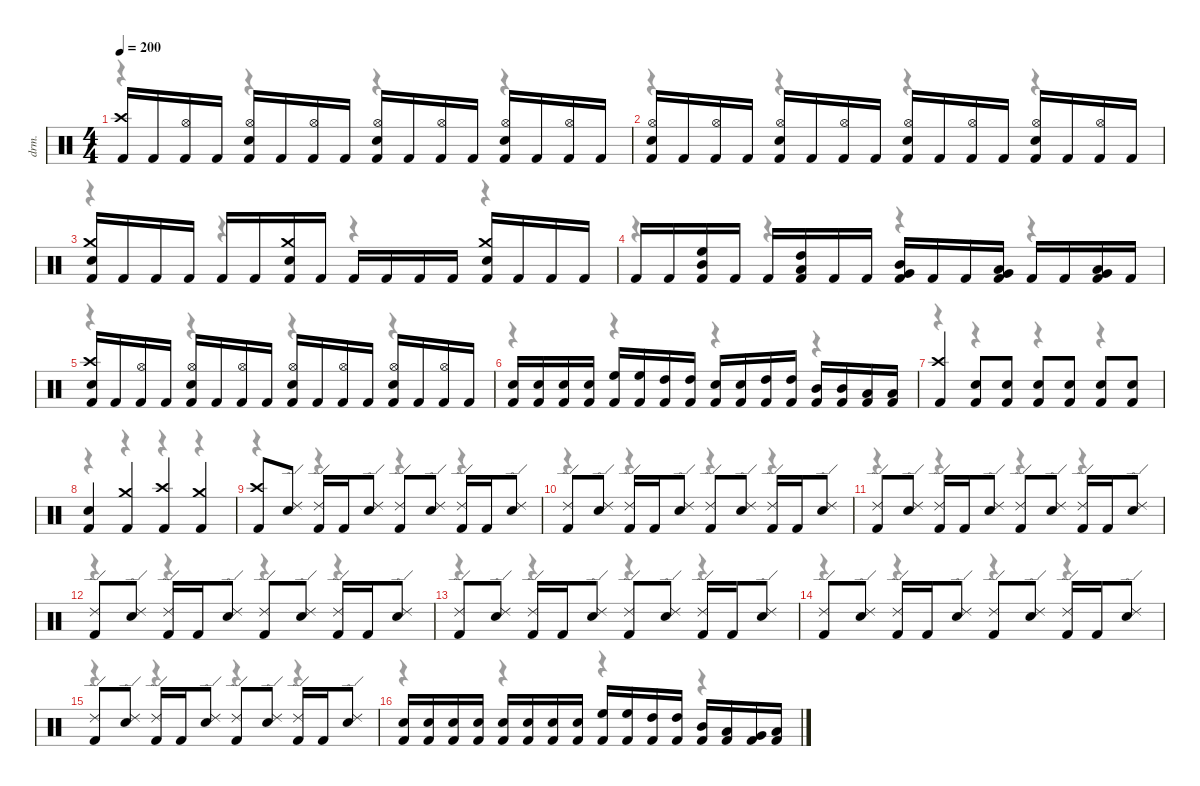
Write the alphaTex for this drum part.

\hideDynamics
\bracketExtendMode nobrackets
\otherSystemsTrackNameOrientation horizontal
\track ("Drums" "drm.") {instrument percussion}
\staff {score}
\articulation defaults
\voice
\ts (4 4)
\section ("" "")
\scale
0.975825
\tempo 200
\accidentals auto
\clef neutral
\ottava regular
\simile none
\ks c
("Kick (hit) 2" "Crash high (hit)").16{dy f} "Kick (hit) 2".16 ("Kick (hit) 2" "Hi-Hat (open)").16 "Kick (hit) 2".16 ("Kick (hit) 2" "Snare (hit) 2" "Hi-Hat (open)").16 "Kick (hit) 2".16 ("Kick (hit) 2" "Hi-Hat (open)").16 "Kick (hit) 2".16 ("Kick (hit) 2" "Snare (hit) 2" "Hi-Hat (open)").16 "Kick (hit) 2".16 ("Kick (hit) 2" "Hi-Hat (open)").16 "Kick (hit) 2".16 ("Kick (hit) 2" "Snare (hit) 2" "Hi-Hat (open)").16 "Kick (hit) 2".16 ("Kick (hit) 2" "Hi-Hat (open)").16 "Kick (hit) 2".16 |
\scale
0.975825 ("Kick (hit) 2" "Snare (hit) 2" "Hi-Hat (open)").16 "Kick (hit) 2".16 ("Kick (hit) 2" "Hi-Hat (open)").16 "Kick (hit) 2".16 ("Kick (hit) 2" "Snare (hit) 2" "Hi-Hat (open)").16 "Kick (hit) 2".16 ("Kick (hit) 2" "Hi-Hat (open)").16 "Kick (hit) 2".16 ("Kick (hit) 2" "Snare (hit) 2" "Hi-Hat (open)").16 "Kick (hit) 2".16 ("Kick (hit) 2" "Hi-Hat (open)").16 "Kick (hit) 2".16 ("Kick (hit) 2" "Snare (hit) 2" "Hi-Hat (open)").16 "Kick (hit) 2".16 ("Kick (hit) 2" "Hi-Hat (open)").16 "Kick (hit) 2".16 |
\scale
1.084 ("Kick (hit) 2" "Snare (hit) 2" "Crash medium (hit)").16 "Kick (hit) 2".16 "Kick (hit) 2".16 "Kick (hit) 2".16 "Kick (hit) 2".16 "Kick (hit) 2".16 ("Kick (hit) 2" "Snare (hit) 2" "Crash medium (hit)").16 "Kick (hit) 2".16 "Kick (hit) 2".16 "Kick (hit) 2".16 "Kick (hit) 2".16 "Kick (hit) 2".16 ("Kick (hit) 2" "Snare (hit) 2" "Crash medium (hit)").16 "Kick (hit) 2".16 "Kick (hit) 2".16 "Kick (hit) 2".16 |
\scale
0.980728 "Kick (hit) 2".16 "Kick (hit) 2".16 ("Kick (hit) 2" "High Floor Tom (hit)" "Mid Tom (hit)").16 "Kick (hit) 2".16 "Kick (hit) 2".16 ("Kick (hit) 2" "High Tom (hit)" "Low Tom (hit)").16 "Kick (hit) 2".16 "Kick (hit) 2".16 ("Kick (hit) 2" "Mid Tom (hit)" "Very Low Tom (hit)").16 "Kick (hit) 2".16 "Kick (hit) 2".16 ("Kick (hit) 2" "Low Tom (hit)" "Very Low Tom (hit)").16 "Kick (hit) 2".16 "Kick (hit) 2".16 ("Kick (hit) 2" "Very Low Tom (hit)" "Low Floor Tom (hit)").16 "Kick (hit) 2".16 |
\scale
0.980728 ("Kick (hit) 2" "Snare (hit) 2" "Crash high (hit)").16 "Kick (hit) 2".16 ("Kick (hit) 2" "Hi-Hat (open)").16 "Kick (hit) 2".16 ("Kick (hit) 2" "Snare (hit) 2" "Hi-Hat (open)").16 "Kick (hit) 2".16 ("Kick (hit) 2" "Hi-Hat (open)").16 "Kick (hit) 2".16 ("Kick (hit) 2" "Snare (hit) 2" "Hi-Hat (open)").16 "Kick (hit) 2".16 ("Kick (hit) 2" "Hi-Hat (open)").16 "Kick (hit) 2".16 ("Kick (hit) 2" "Snare (hit) 2" "Hi-Hat (open)").16 "Kick (hit) 2".16 ("Kick (hit) 2" "Hi-Hat (open)").16 "Kick (hit) 2".16 |
\scale
0.980728 ("Kick (hit) 2" "Snare (hit) 2").16 ("Kick (hit) 2" "Snare (hit) 2").16 ("Kick (hit) 2" "Snare (hit) 2").16 ("Kick (hit) 2" "Snare (hit) 2").16 ("Kick (hit) 2" "High Floor Tom (hit)").16 ("Kick (hit) 2" "High Floor Tom (hit)").16 ("Kick (hit) 2" "High Tom (hit)").16 ("Kick (hit) 2" "High Tom (hit)").16 ("Kick (hit) 2" "Snare (hit) 2").16 ("Kick (hit) 2" "Snare (hit) 2").16 ("Kick (hit) 2" "High Tom (hit)").16 ("Kick (hit) 2" "High Tom (hit)").16 ("Kick (hit) 2" "Mid Tom (hit)").16 ("Kick (hit) 2" "Mid Tom (hit)").16 ("Kick (hit) 2" "Low Tom (hit)").16 ("Kick (hit) 2" "Low Tom (hit)").16 |
\scale
0.980728 ("Kick (hit) 2" "Crash high (hit)").4 ("Kick (hit) 2" "Snare (hit) 2").8 ("Kick (hit) 2" "Snare (hit) 2").8 ("Kick (hit) 2" "Snare (hit) 2").8 ("Kick (hit) 2" "Snare (hit) 2").8 ("Kick (hit) 2" "Snare (hit) 2").8 ("Kick (hit) 2" "Snare (hit) 2").8 |
\scale
0.993086 ("Kick (hit) 2" "Snare (hit) 2").4 ("Kick (hit) 2" "Crash medium (hit)").4 ("Kick (hit) 2" "Crash high (hit)").4 ("Kick (hit) 2" "Crash medium (hit)").4 |
\section ("" "")
\scale
1.08361 ("Kick (hit) 2" "Crash high (hit)").8 ("Snare (hit) 2" "Ride (edge) 2").8 ("Kick (hit) 2" "Ride (edge) 2").16 "Kick (hit) 2".16 ("Snare (hit) 2" "Ride (edge) 2").8 ("Kick (hit) 2" "Ride (edge) 2").8 ("Snare (hit) 2" "Ride (edge) 2").8 ("Kick (hit) 2" "Ride (edge) 2").16 "Kick (hit) 2".16 ("Snare (hit) 2" "Ride (edge) 2").8 |
\scale
0.980336 ("Kick (hit) 2" "Ride (edge) 2").8 ("Snare (hit) 2" "Ride (edge) 2").8 ("Kick (hit) 2" "Ride (edge) 2").16 "Kick (hit) 2".16 ("Snare (hit) 2" "Ride (edge) 2").8 ("Kick (hit) 2" "Ride (edge) 2").8 ("Snare (hit) 2" "Ride (edge) 2").8 ("Kick (hit) 2" "Ride (edge) 2").16 "Kick (hit) 2".16 ("Snare (hit) 2" "Ride (edge) 2").8 |
\scale
0.980336 ("Kick (hit) 2" "Ride (edge) 2").8 ("Snare (hit) 2" "Ride (edge) 2").8 ("Kick (hit) 2" "Ride (edge) 2").16 "Kick (hit) 2".16 ("Snare (hit) 2" "Ride (edge) 2").8 ("Kick (hit) 2" "Ride (edge) 2").8 ("Snare (hit) 2" "Ride (edge) 2").8 ("Kick (hit) 2" "Ride (edge) 2").16 "Kick (hit) 2".16 ("Snare (hit) 2" "Ride (edge) 2").8 |
\scale
0.980336 ("Kick (hit) 2" "Ride (edge) 2").8 ("Snare (hit) 2" "Ride (edge) 2").8 ("Kick (hit) 2" "Ride (edge) 2").16 "Kick (hit) 2".16 ("Snare (hit) 2" "Ride (edge) 2").8 ("Kick (hit) 2" "Ride (edge) 2").8 ("Snare (hit) 2" "Ride (edge) 2").8 ("Kick (hit) 2" "Ride (edge) 2").16 "Kick (hit) 2".16 ("Snare (hit) 2" "Ride (edge) 2").8 |
\scale
0.995047 ("Kick (hit) 2" "Ride (edge) 2").8 ("Snare (hit) 2" "Ride (edge) 2").8 ("Kick (hit) 2" "Ride (edge) 2").16 "Kick (hit) 2".16 ("Snare (hit) 2" "Ride (edge) 2").8 ("Kick (hit) 2" "Ride (edge) 2").8 ("Snare (hit) 2" "Ride (edge) 2").8 ("Kick (hit) 2" "Ride (edge) 2").16 "Kick (hit) 2".16 ("Snare (hit) 2" "Ride (edge) 2").8 |
\scale
0.980336 ("Kick (hit) 2" "Ride (edge) 2").8 ("Snare (hit) 2" "Ride (edge) 2").8 ("Kick (hit) 2" "Ride (edge) 2").16 "Kick (hit) 2".16 ("Snare (hit) 2" "Ride (edge) 2").8 ("Kick (hit) 2" "Ride (edge) 2").8 ("Snare (hit) 2" "Ride (edge) 2").8 ("Kick (hit) 2" "Ride (edge) 2").16 "Kick (hit) 2".16 ("Snare (hit) 2" "Ride (edge) 2").8 |
\scale
1.08116 ("Kick (hit) 2" "Ride (edge) 2").8 ("Snare (hit) 2" "Ride (edge) 2").8 ("Kick (hit) 2" "Ride (edge) 2").16 "Kick (hit) 2".16 ("Snare (hit) 2" "Ride (edge) 2").8 ("Kick (hit) 2" "Ride (edge) 2").8 ("Snare (hit) 2" "Ride (edge) 2").8 ("Kick (hit) 2" "Ride (edge) 2").16 "Kick (hit) 2".16 ("Snare (hit) 2" "Ride (edge) 2").8 |
\scale
0.992595 ("Kick (hit) 2" "Snare (hit) 2").16 ("Kick (hit) 2" "Snare (hit) 2").16 ("Kick (hit) 2" "Snare (hit) 2").16 ("Kick (hit) 2" "Snare (hit) 2").16 ("Kick (hit) 2" "Snare (hit) 2").16 ("Kick (hit) 2" "Snare (hit) 2").16 ("Kick (hit) 2" "Snare (hit) 2").16 ("Kick (hit) 2" "Snare (hit) 2").16 ("Kick (hit) 2" "High Floor Tom (hit)").16 ("Kick (hit) 2" "High Floor Tom (hit)").16 ("Kick (hit) 2" "High Tom (hit)").16 ("Kick (hit) 2" "High Tom (hit)").16 ("Kick (hit) 2" "Mid Tom (hit)").16 ("Kick (hit) 2" "Low Tom (hit)").16 ("Kick (hit) 2" "Very Low Tom (hit)").16 ("Kick (hit) 2" "Low Floor Tom (hit)").16
\voice
\clef neutral
\ottava regular
\simile none
\ks c
r.4{dy mf} r.4 r.4 r.4 |
r.4 r.4 r.4 r.4 |
r.4 r.4 r.4 r.4 |
r.4 r.4 r.4 r.4 |
r.4 r.4 r.4 r.4 |
r.4 r.4 r.4 r.4 |
r.4 r.4 r.4 r.4 |
r.4 r.4 r.4 r.4 |
r.4 r.4 r.4 r.4 |
r.4 r.4 r.4 r.4 |
r.4 r.4 r.4 r.4 |
r.4 r.4 r.4 r.4 |
r.4 r.4 r.4 r.4 |
r.4 r.4 r.4 r.4 |
r.4 r.4 r.4 r.4 |
r.4 r.4 r.4 r.4
